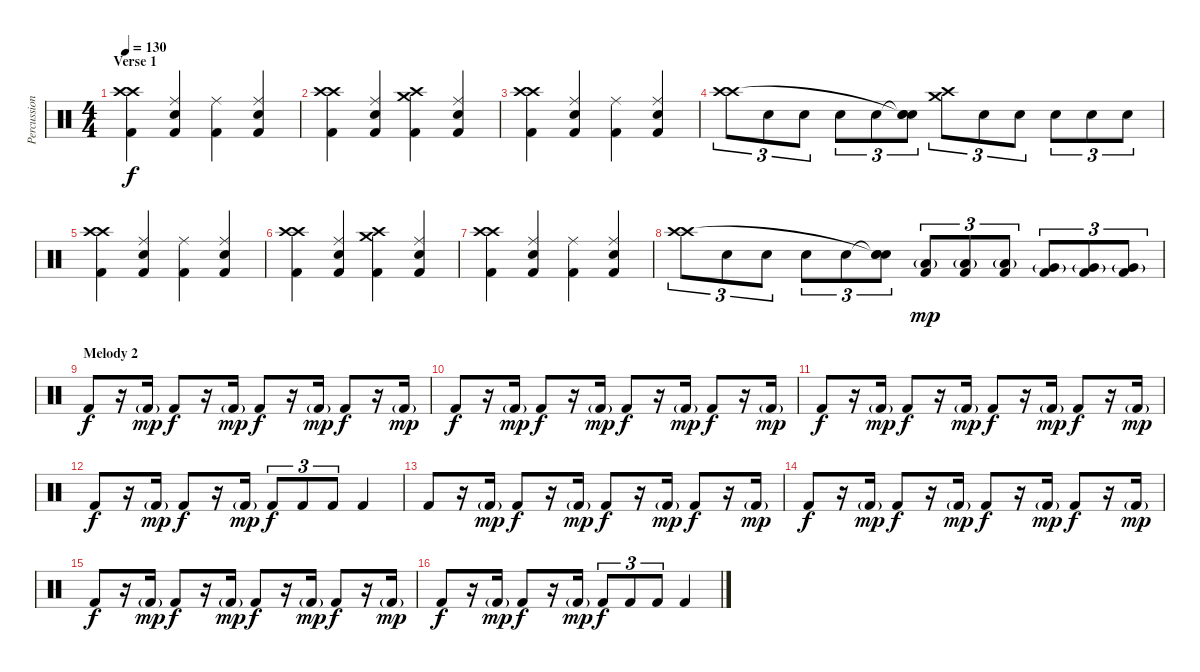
\track ("Percussion - Rhythm" "Percussion") {instrument percussion}
\staff {score}
\articulation defaults
\ts (4 4)
\section ("" "Verse 1")
\tempo 130
\clef neutral
\ks c
("Crash high (hit)" "Crash high (hit)" "Kick (hit) 2").4{dy f volume 13} ("Ride (middle)" "Snare (hit) 2" "Kick (hit) 2").4 ("Ride (middle)" "Kick (hit) 2").4 ("Ride (middle)" "Snare (hit) 2" "Kick (hit) 2").4 |
("Crash high (hit)" "Crash high (hit)" "Kick (hit) 2").4 ("Ride (middle)" "Snare (hit) 2" "Kick (hit) 2").4 ("Crash medium (hit)" "Crash high (hit)" "Kick (hit) 2").4 ("Ride (middle)" "Snare (hit) 2" "Kick (hit) 2").4 |
("Crash high (hit)" "Crash high (hit)" "Kick (hit) 2").4{volume 13} ("Ride (middle)" "Snare (hit) 2" "Kick (hit) 2").4 ("Ride (middle)" "Kick (hit) 2").4 ("Ride (middle)" "Snare (hit) 2" "Kick (hit) 2").4 |
("Crash high (hit)" "Crash high (hit)").8{tu (3 2) volume 16} "Snare (hit) 2".8{tu (3 2)} "Snare (hit) 2".8{tu (3 2)} "Snare (hit) 2".8{tu (3 2)} "Snare (hit) 2".8{tu (3 2)} ("Snare (hit)"{t} "Snare (hit)"{t} "Snare (hit) 2").8{tu (3 2)} ("Crash medium (hit)" "Crash high (hit)").8{tu (3 2)} "Snare (hit) 2".8{tu (3 2)} "Snare (hit) 2".8{tu (3 2)} "Snare (hit) 2".8{tu (3 2)} "Snare (hit) 2".8{tu (3 2)} "Snare (hit) 2".8{tu (3 2)} |
("Crash high (hit)" "Crash high (hit)" "Kick (hit) 2").4{volume 13} ("Ride (middle)" "Snare (hit) 2" "Kick (hit) 2").4 ("Ride (middle)" "Kick (hit) 2").4 ("Ride (middle)" "Snare (hit) 2" "Kick (hit) 2").4 |
("Crash high (hit)" "Crash high (hit)" "Kick (hit) 2").4 ("Ride (middle)" "Snare (hit) 2" "Kick (hit) 2").4 ("Crash medium (hit)" "Crash high (hit)" "Kick (hit) 2").4 ("Ride (middle)" "Snare (hit) 2" "Kick (hit) 2").4 |
("Crash high (hit)" "Crash high (hit)" "Kick (hit) 2").4{volume 13} ("Ride (middle)" "Snare (hit) 2" "Kick (hit) 2").4 ("Ride (middle)" "Kick (hit) 2").4 ("Ride (middle)" "Snare (hit) 2" "Kick (hit) 2").4 |
("Crash high (hit)" "Crash high (hit)").8{tu (3 2) volume 16} "Snare (hit) 2".8{tu (3 2)} "Snare (hit) 2".8{tu (3 2)} "Snare (hit) 2".8{tu (3 2)} "Snare (hit) 2".8{tu (3 2)} ("Snare (hit)"{t} "Snare (hit)"{t} "Snare (hit) 2").8{tu (3 2)} ("Low Tom (hit)"{g} "Kick (hit) 2").8{tu (3 2) dy mp} ("Low Tom (hit)"{g} "Kick (hit) 2").8{tu (3 2)} ("Low Tom (hit)"{g} "Kick (hit) 2").8{tu (3 2)} ("Very Low Tom (hit)"{g} "Kick (hit) 2").8{tu (3 2)} ("Very Low Tom (hit)"{g} "Kick (hit) 2").8{tu (3 2)} ("Very Low Tom (hit)"{g} "Kick (hit) 2").8{tu (3 2)} |
\section ("" "Melody 2")
"Kick (hit) 2".8{dy f} r.16 "Kick (hit) 2"{g}.16{dy mp} "Kick (hit) 2".8{dy f} r.16 "Kick (hit) 2"{g}.16{dy mp} "Kick (hit) 2".8{dy f} r.16 "Kick (hit) 2"{g}.16{dy mp} "Kick (hit) 2".8{dy f} r.16 "Kick (hit) 2"{g}.16{dy mp} |
"Kick (hit) 2".8{dy f} r.16 "Kick (hit) 2"{g}.16{dy mp} "Kick (hit) 2".8{dy f} r.16 "Kick (hit) 2"{g}.16{dy mp} "Kick (hit) 2".8{dy f} r.16 "Kick (hit) 2"{g}.16{dy mp} "Kick (hit) 2".8{dy f} r.16 "Kick (hit) 2"{g}.16{dy mp} |
"Kick (hit) 2".8{dy f} r.16 "Kick (hit) 2"{g}.16{dy mp} "Kick (hit) 2".8{dy f} r.16 "Kick (hit) 2"{g}.16{dy mp} "Kick (hit) 2".8{dy f} r.16 "Kick (hit) 2"{g}.16{dy mp} "Kick (hit) 2".8{dy f} r.16 "Kick (hit) 2"{g}.16{dy mp} |
"Kick (hit) 2".8{dy f} r.16 "Kick (hit) 2"{g}.16{dy mp} "Kick (hit) 2".8{dy f} r.16 "Kick (hit) 2"{g}.16{dy mp} "Kick (hit) 2".8{tu (3 2) dy f} "Kick (hit) 2".8{tu (3 2)} "Kick (hit) 2".8{tu (3 2)} "Kick (hit) 2".4 |
"Kick (hit) 2".8 r.16 "Kick (hit) 2"{g}.16{dy mp} "Kick (hit) 2".8{dy f} r.16 "Kick (hit) 2"{g}.16{dy mp} "Kick (hit) 2".8{dy f} r.16 "Kick (hit) 2"{g}.16{dy mp} "Kick (hit) 2".8{dy f} r.16 "Kick (hit) 2"{g}.16{dy mp} |
"Kick (hit) 2".8{dy f} r.16 "Kick (hit) 2"{g}.16{dy mp} "Kick (hit) 2".8{dy f} r.16 "Kick (hit) 2"{g}.16{dy mp} "Kick (hit) 2".8{dy f} r.16 "Kick (hit) 2"{g}.16{dy mp} "Kick (hit) 2".8{dy f} r.16 "Kick (hit) 2"{g}.16{dy mp} |
"Kick (hit) 2".8{dy f} r.16 "Kick (hit) 2"{g}.16{dy mp} "Kick (hit) 2".8{dy f} r.16 "Kick (hit) 2"{g}.16{dy mp} "Kick (hit) 2".8{dy f} r.16 "Kick (hit) 2"{g}.16{dy mp} "Kick (hit) 2".8{dy f} r.16 "Kick (hit) 2"{g}.16{dy mp} |
"Kick (hit) 2".8{dy f} r.16 "Kick (hit) 2"{g}.16{dy mp} "Kick (hit) 2".8{dy f} r.16 "Kick (hit) 2"{g}.16{dy mp} "Kick (hit) 2".8{tu (3 2) dy f} "Kick (hit) 2".8{tu (3 2)} "Kick (hit) 2".8{tu (3 2)} "Kick (hit) 2".4
